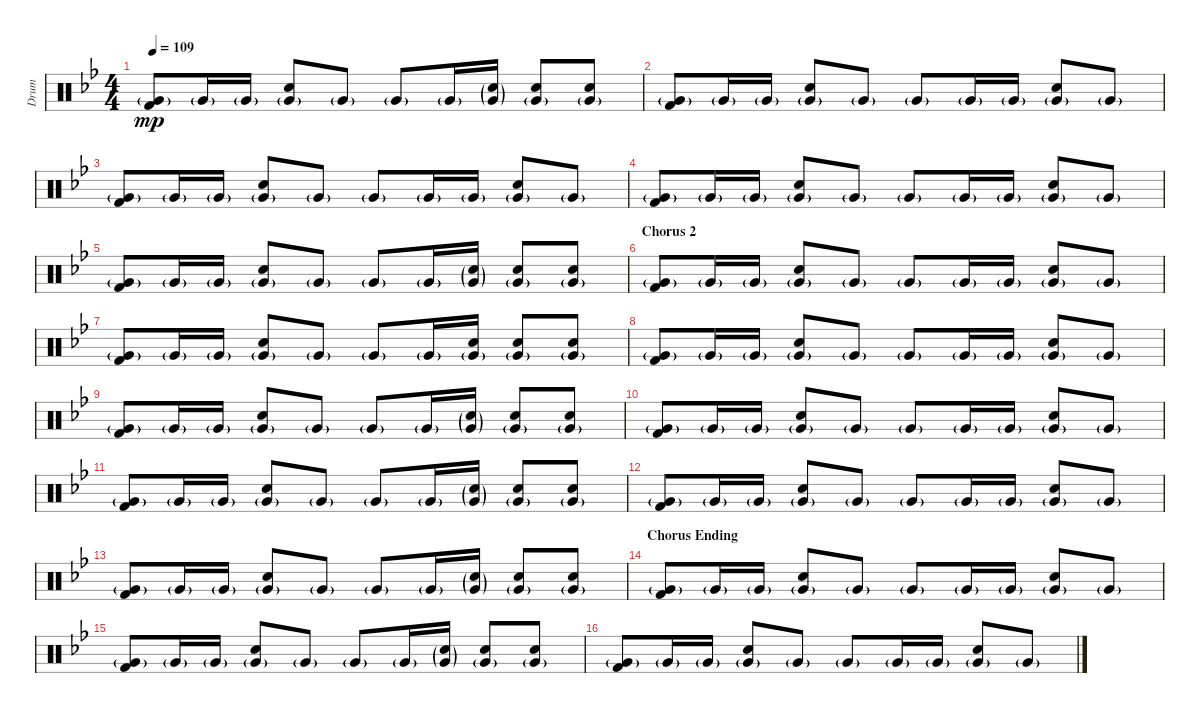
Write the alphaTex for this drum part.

\track ("Drum" "Drum") {instrument percussion}
\staff {score}
\articulation defaults
\ts (4 4)
\tempo 109
\clef neutral
\ks bb
("Very Low Tom (hit)"{g} "Kick (hit) 2").8{dy mp} "Very Low Tom (hit)"{g}.16 "Very Low Tom (hit)"{g}.16 ("Very Low Tom (hit)"{g} "Snare (hit) 2").8 "Very Low Tom (hit)"{g}.8 "Very Low Tom (hit)"{g}.8 "Very Low Tom (hit)"{g}.16 ("Very Low Tom (hit)"{g} "Snare (hit) 2"{g}).16 ("Very Low Tom (hit)"{g} "Snare (hit) 2").8 ("Very Low Tom (hit)"{g} "Snare (hit) 2").8 |
("Very Low Tom (hit)"{g} "Kick (hit) 2").8 "Very Low Tom (hit)"{g}.16 "Very Low Tom (hit)"{g}.16 ("Very Low Tom (hit)"{g} "Snare (hit) 2").8 "Very Low Tom (hit)"{g}.8 "Very Low Tom (hit)"{g}.8 "Very Low Tom (hit)"{g}.16 "Very Low Tom (hit)"{g}.16 ("Very Low Tom (hit)"{g} "Snare (hit) 2").8 "Very Low Tom (hit)"{g}.8 |
("Very Low Tom (hit)"{g} "Kick (hit) 2").8 "Very Low Tom (hit)"{g}.16 "Very Low Tom (hit)"{g}.16 ("Very Low Tom (hit)"{g} "Snare (hit) 2").8 "Very Low Tom (hit)"{g}.8 "Very Low Tom (hit)"{g}.8 "Very Low Tom (hit)"{g}.16 "Very Low Tom (hit)"{g}.16 ("Very Low Tom (hit)"{g} "Snare (hit) 2").8 "Very Low Tom (hit)"{g}.8 |
("Very Low Tom (hit)"{g} "Kick (hit) 2").8 "Very Low Tom (hit)"{g}.16 "Very Low Tom (hit)"{g}.16 ("Very Low Tom (hit)"{g} "Snare (hit) 2").8 "Very Low Tom (hit)"{g}.8 "Very Low Tom (hit)"{g}.8 "Very Low Tom (hit)"{g}.16 "Very Low Tom (hit)"{g}.16 ("Very Low Tom (hit)"{g} "Snare (hit) 2").8 "Very Low Tom (hit)"{g}.8 |
("Very Low Tom (hit)"{g} "Kick (hit) 2").8 "Very Low Tom (hit)"{g}.16 "Very Low Tom (hit)"{g}.16 ("Very Low Tom (hit)"{g} "Snare (hit) 2").8 "Very Low Tom (hit)"{g}.8 "Very Low Tom (hit)"{g}.8 "Very Low Tom (hit)"{g}.16 ("Very Low Tom (hit)"{g} "Snare (hit) 2"{g}).16 ("Very Low Tom (hit)"{g} "Snare (hit) 2").8 ("Very Low Tom (hit)"{g} "Snare (hit) 2").8 |
\section ("" "Chorus 2")
("Very Low Tom (hit)"{g} "Kick (hit) 2").8 "Very Low Tom (hit)"{g}.16 "Very Low Tom (hit)"{g}.16 ("Very Low Tom (hit)"{g} "Snare (hit) 2").8 "Very Low Tom (hit)"{g}.8 "Very Low Tom (hit)"{g}.8 "Very Low Tom (hit)"{g}.16 "Very Low Tom (hit)"{g}.16 ("Very Low Tom (hit)"{g} "Snare (hit) 2").8 "Very Low Tom (hit)"{g}.8 |
("Very Low Tom (hit)"{g} "Kick (hit) 2").8 "Very Low Tom (hit)"{g}.16 "Very Low Tom (hit)"{g}.16 ("Very Low Tom (hit)"{g} "Snare (hit) 2").8 "Very Low Tom (hit)"{g}.8 "Very Low Tom (hit)"{g}.8 "Very Low Tom (hit)"{g}.16 ("Very Low Tom (hit)"{g} "Snare (hit) 2").16 ("Very Low Tom (hit)"{g} "Snare (hit) 2").8 ("Very Low Tom (hit)"{g} "Snare (hit) 2").8 |
("Very Low Tom (hit)"{g} "Kick (hit) 2").8 "Very Low Tom (hit)"{g}.16 "Very Low Tom (hit)"{g}.16 ("Very Low Tom (hit)"{g} "Snare (hit) 2").8 "Very Low Tom (hit)"{g}.8 "Very Low Tom (hit)"{g}.8 "Very Low Tom (hit)"{g}.16 "Very Low Tom (hit)"{g}.16 ("Very Low Tom (hit)"{g} "Snare (hit) 2").8 "Very Low Tom (hit)"{g}.8 |
("Very Low Tom (hit)"{g} "Kick (hit) 2").8 "Very Low Tom (hit)"{g}.16 "Very Low Tom (hit)"{g}.16 ("Very Low Tom (hit)"{g} "Snare (hit) 2").8 "Very Low Tom (hit)"{g}.8 "Very Low Tom (hit)"{g}.8 "Very Low Tom (hit)"{g}.16 ("Very Low Tom (hit)"{g} "Snare (hit) 2"{g}).16 ("Very Low Tom (hit)"{g} "Snare (hit) 2").8 ("Very Low Tom (hit)"{g} "Snare (hit) 2").8 |
("Very Low Tom (hit)"{g} "Kick (hit) 2").8 "Very Low Tom (hit)"{g}.16 "Very Low Tom (hit)"{g}.16 ("Very Low Tom (hit)"{g} "Snare (hit) 2").8 "Very Low Tom (hit)"{g}.8 "Very Low Tom (hit)"{g}.8 "Very Low Tom (hit)"{g}.16 "Very Low Tom (hit)"{g}.16 ("Very Low Tom (hit)"{g} "Snare (hit) 2").8 "Very Low Tom (hit)"{g}.8 |
("Very Low Tom (hit)"{g} "Kick (hit) 2").8 "Very Low Tom (hit)"{g}.16 "Very Low Tom (hit)"{g}.16 ("Very Low Tom (hit)"{g} "Snare (hit) 2").8 "Very Low Tom (hit)"{g}.8 "Very Low Tom (hit)"{g}.8 "Very Low Tom (hit)"{g}.16 ("Very Low Tom (hit)"{g} "Snare (hit) 2"{g}).16 ("Very Low Tom (hit)"{g} "Snare (hit) 2").8 ("Very Low Tom (hit)"{g} "Snare (hit) 2").8 |
("Very Low Tom (hit)"{g} "Kick (hit) 2").8 "Very Low Tom (hit)"{g}.16 "Very Low Tom (hit)"{g}.16 ("Very Low Tom (hit)"{g} "Snare (hit) 2").8 "Very Low Tom (hit)"{g}.8 "Very Low Tom (hit)"{g}.8 "Very Low Tom (hit)"{g}.16 "Very Low Tom (hit)"{g}.16 ("Very Low Tom (hit)"{g} "Snare (hit) 2").8 "Very Low Tom (hit)"{g}.8 |
("Very Low Tom (hit)"{g} "Kick (hit) 2").8 "Very Low Tom (hit)"{g}.16 "Very Low Tom (hit)"{g}.16 ("Very Low Tom (hit)"{g} "Snare (hit) 2").8 "Very Low Tom (hit)"{g}.8 "Very Low Tom (hit)"{g}.8 "Very Low Tom (hit)"{g}.16 ("Very Low Tom (hit)"{g} "Snare (hit) 2"{g}).16 ("Very Low Tom (hit)"{g} "Snare (hit) 2").8 ("Very Low Tom (hit)"{g} "Snare (hit) 2").8 |
\section ("" "Chorus Ending")
("Very Low Tom (hit)"{g} "Kick (hit) 2").8 "Very Low Tom (hit)"{g}.16 "Very Low Tom (hit)"{g}.16 ("Very Low Tom (hit)"{g} "Snare (hit) 2").8 "Very Low Tom (hit)"{g}.8 "Very Low Tom (hit)"{g}.8 "Very Low Tom (hit)"{g}.16 "Very Low Tom (hit)"{g}.16 ("Very Low Tom (hit)"{g} "Snare (hit) 2").8 "Very Low Tom (hit)"{g}.8 |
("Very Low Tom (hit)"{g} "Kick (hit) 2").8 "Very Low Tom (hit)"{g}.16 "Very Low Tom (hit)"{g}.16 ("Very Low Tom (hit)"{g} "Snare (hit) 2").8 "Very Low Tom (hit)"{g}.8 "Very Low Tom (hit)"{g}.8 "Very Low Tom (hit)"{g}.16 ("Very Low Tom (hit)"{g} "Snare (hit) 2"{g}).16 ("Very Low Tom (hit)"{g} "Snare (hit) 2").8 ("Very Low Tom (hit)"{g} "Snare (hit) 2").8 |
("Very Low Tom (hit)"{g} "Kick (hit) 2").8 "Very Low Tom (hit)"{g}.16 "Very Low Tom (hit)"{g}.16 ("Very Low Tom (hit)"{g} "Snare (hit) 2").8 "Very Low Tom (hit)"{g}.8 "Very Low Tom (hit)"{g}.8 "Very Low Tom (hit)"{g}.16 "Very Low Tom (hit)"{g}.16 ("Very Low Tom (hit)"{g} "Snare (hit) 2").8 "Very Low Tom (hit)"{g}.8
